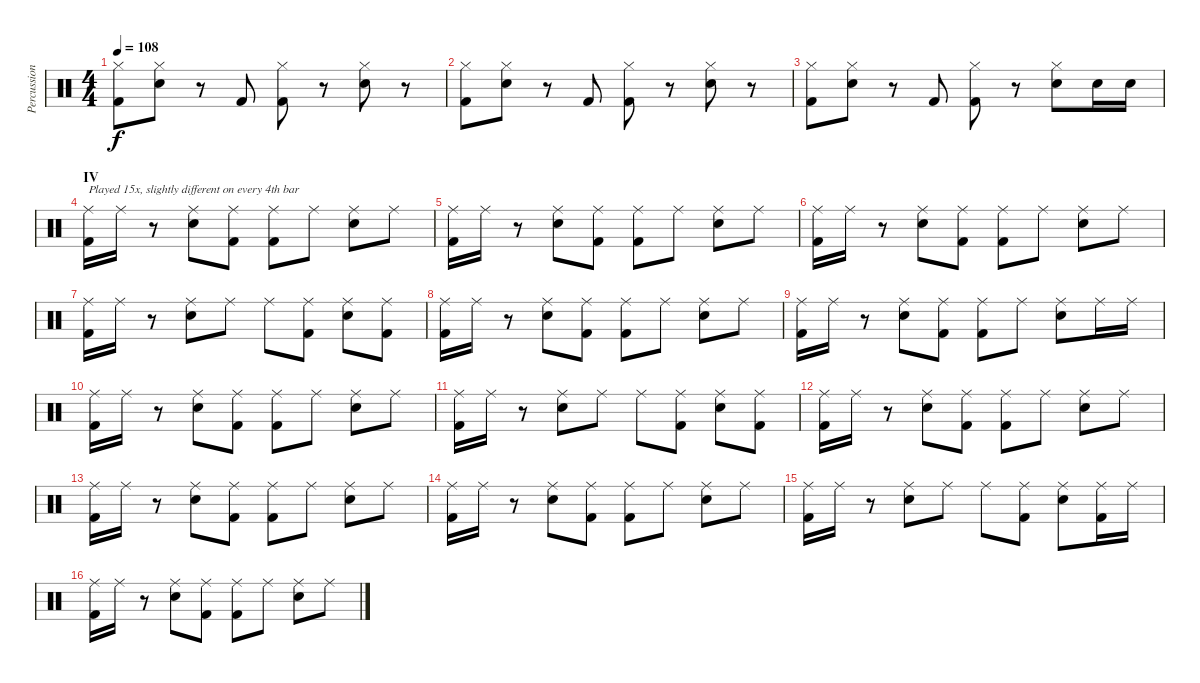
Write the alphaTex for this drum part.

\track ("Percussion" "Percussion") {instrument percussion}
\staff {score}
\articulation defaults
\ts (4 4)
\tempo 108
\clef neutral
\ks c
("Hi-Hat (closed)" "Kick (hit) 2").8{dy f} ("Electric Snare (hit)" "Hi-Hat (closed)").8 r.8 "Kick (hit) 2".8 ("Hi-Hat (closed)" "Kick (hit) 2").8 r.8 ("Electric Snare (hit)" "Hi-Hat (closed)").8 r.8 |
("Hi-Hat (closed)" "Kick (hit) 2").8 ("Electric Snare (hit)" "Hi-Hat (closed)").8 r.8 "Kick (hit) 2".8 ("Hi-Hat (closed)" "Kick (hit) 2").8 r.8 ("Electric Snare (hit)" "Hi-Hat (closed)").8 r.8 |
("Hi-Hat (closed)" "Kick (hit) 2").8 ("Electric Snare (hit)" "Hi-Hat (closed)").8 r.8 "Kick (hit) 2".8 ("Hi-Hat (closed)" "Kick (hit) 2").8 r.8 ("Electric Snare (hit)" "Hi-Hat (closed)").8 "Electric Snare (hit)".16 "Electric Snare (hit)".16 |
\section ("" "IV")
("Ride (middle)" "Kick (hit) 2").16{txt "Played 15x, slightly different on every 4th bar"} "Ride (middle)".16 r.8 ("Ride (middle)" "Electric Snare (hit)").8 ("Ride (middle)" "Kick (hit) 2").8 ("Ride (middle)" "Kick (hit) 2").8 "Ride (middle)".8 ("Ride (middle)" "Electric Snare (hit)").8 "Ride (middle)".8 |
("Ride (middle)" "Kick (hit) 2").16 "Ride (middle)".16 r.8 ("Ride (middle)" "Electric Snare (hit)").8 ("Ride (middle)" "Kick (hit) 2").8 ("Ride (middle)" "Kick (hit) 2").8 "Ride (middle)".8 ("Ride (middle)" "Electric Snare (hit)").8 "Ride (middle)".8 |
("Ride (middle)" "Kick (hit) 2").16 "Ride (middle)".16 r.8 ("Ride (middle)" "Electric Snare (hit)").8 ("Ride (middle)" "Kick (hit) 2").8 ("Ride (middle)" "Kick (hit) 2").8 "Ride (middle)".8 ("Ride (middle)" "Electric Snare (hit)").8 "Ride (middle)".8 |
("Ride (middle)" "Kick (hit) 2").16 "Ride (middle)".16 r.8 ("Ride (middle)" "Electric Snare (hit)").8 "Ride (middle)".8 "Ride (middle)".8 ("Ride (middle)" "Kick (hit) 2").8 ("Ride (middle)" "Electric Snare (hit)").8 ("Ride (middle)" "Kick (hit) 2").8 |
("Ride (middle)" "Kick (hit) 2").16 "Ride (middle)".16 r.8 ("Ride (middle)" "Electric Snare (hit)").8 ("Ride (middle)" "Kick (hit) 2").8 ("Ride (middle)" "Kick (hit) 2").8 "Ride (middle)".8 ("Ride (middle)" "Electric Snare (hit)").8 "Ride (middle)".8 |
("Ride (middle)" "Kick (hit) 2").16 "Ride (middle)".16 r.8 ("Ride (middle)" "Electric Snare (hit)").8 ("Ride (middle)" "Kick (hit) 2").8 ("Ride (middle)" "Kick (hit) 2").8 "Ride (middle)".8 ("Ride (middle)" "Electric Snare (hit)").8 "Ride (middle)".16 "Ride (middle)".16 |
("Ride (middle)" "Kick (hit) 2").16 "Ride (middle)".16 r.8 ("Ride (middle)" "Electric Snare (hit)").8 ("Ride (middle)" "Kick (hit) 2").8 ("Ride (middle)" "Kick (hit) 2").8 "Ride (middle)".8 ("Ride (middle)" "Electric Snare (hit)").8 "Ride (middle)".8 |
("Ride (middle)" "Kick (hit) 2").16 "Ride (middle)".16 r.8 ("Ride (middle)" "Electric Snare (hit)").8 "Ride (middle)".8 "Ride (middle)".8 ("Ride (middle)" "Kick (hit) 2").8 ("Ride (middle)" "Electric Snare (hit)").8 ("Ride (middle)" "Kick (hit) 2").8 |
("Ride (middle)" "Kick (hit) 2").16 "Ride (middle)".16 r.8 ("Ride (middle)" "Electric Snare (hit)").8 ("Ride (middle)" "Kick (hit) 2").8 ("Ride (middle)" "Kick (hit) 2").8 "Ride (middle)".8 ("Ride (middle)" "Electric Snare (hit)").8 "Ride (middle)".8 |
("Ride (middle)" "Kick (hit) 2").16 "Ride (middle)".16 r.8 ("Ride (middle)" "Electric Snare (hit)").8 ("Ride (middle)" "Kick (hit) 2").8 ("Ride (middle)" "Kick (hit) 2").8 "Ride (middle)".8 ("Ride (middle)" "Electric Snare (hit)").8 "Ride (middle)".8 |
("Ride (middle)" "Kick (hit) 2").16 "Ride (middle)".16 r.8 ("Ride (middle)" "Electric Snare (hit)").8 ("Ride (middle)" "Kick (hit) 2").8 ("Ride (middle)" "Kick (hit) 2").8 "Ride (middle)".8 ("Ride (middle)" "Electric Snare (hit)").8 "Ride (middle)".8 |
("Ride (middle)" "Kick (hit) 2").16 "Ride (middle)".16 r.8 ("Ride (middle)" "Electric Snare (hit)").8 "Ride (middle)".8 "Ride (middle)".8 ("Ride (middle)" "Kick (hit) 2").8 ("Ride (middle)" "Electric Snare (hit)").8 ("Ride (middle)" "Kick (hit) 2").16 "Ride (middle)".16 |
("Ride (middle)" "Kick (hit) 2").16 "Ride (middle)".16 r.8 ("Ride (middle)" "Electric Snare (hit)").8 ("Ride (middle)" "Kick (hit) 2").8 ("Ride (middle)" "Kick (hit) 2").8 "Ride (middle)".8 ("Ride (middle)" "Electric Snare (hit)").8 "Ride (middle)".8
